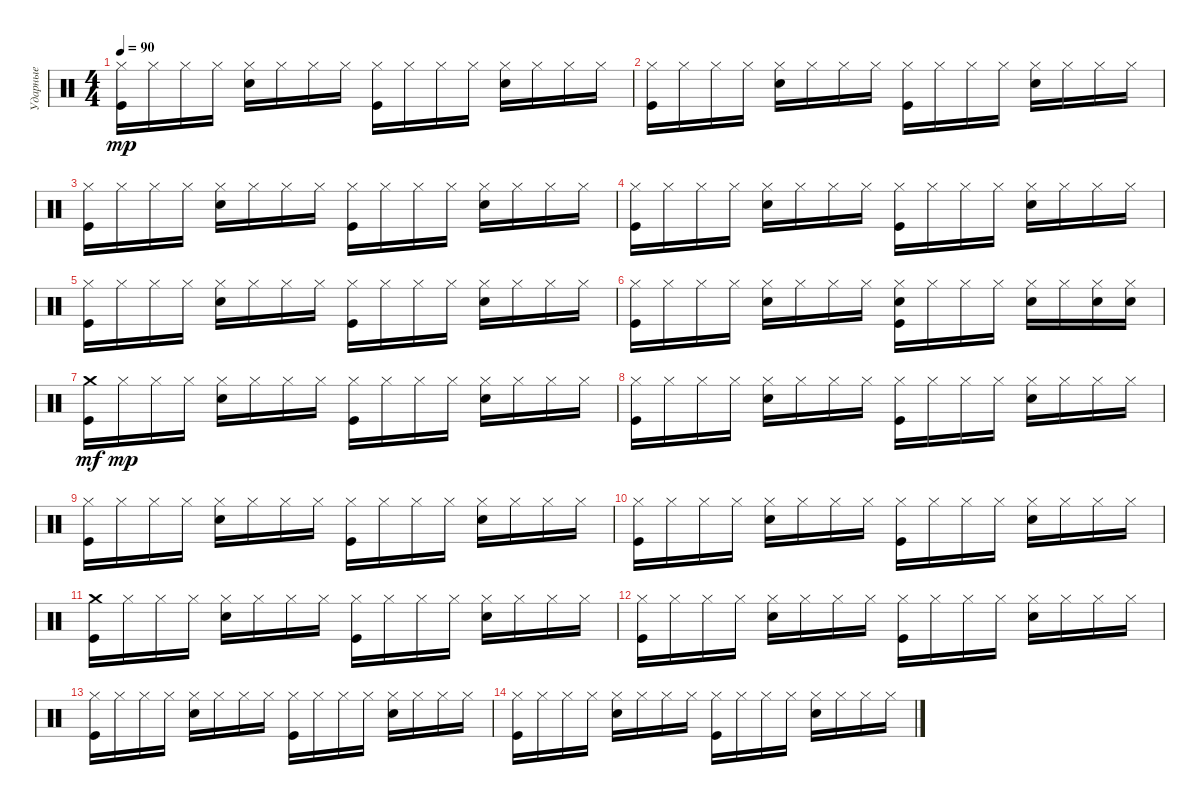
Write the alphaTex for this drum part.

\track ("Ударные" "Ударные") {instrument percussion}
\staff {score}
\articulation defaults
\ts (4 4)
\tempo 90
\clef neutral
\ks c
("Hi-Hat (closed)" "Kick (hit)").16{dy mp} "Hi-Hat (closed)".16 "Hi-Hat (closed)".16 "Hi-Hat (closed)".16 ("Hi-Hat (closed)" "Snare (hit) 2").16 "Hi-Hat (closed)".16 "Hi-Hat (closed)".16 "Hi-Hat (closed)".16 ("Hi-Hat (closed)" "Kick (hit)").16 "Hi-Hat (closed)".16 "Hi-Hat (closed)".16 "Hi-Hat (closed)".16 ("Hi-Hat (closed)" "Snare (hit) 2").16 "Hi-Hat (closed)".16 "Hi-Hat (closed)".16 "Hi-Hat (closed)".16 |
("Hi-Hat (closed)" "Kick (hit)").16 "Hi-Hat (closed)".16 "Hi-Hat (closed)".16 "Hi-Hat (closed)".16 ("Hi-Hat (closed)" "Snare (hit) 2").16 "Hi-Hat (closed)".16 "Hi-Hat (closed)".16 "Hi-Hat (closed)".16 ("Hi-Hat (closed)" "Kick (hit)").16 "Hi-Hat (closed)".16 "Hi-Hat (closed)".16 "Hi-Hat (closed)".16 ("Hi-Hat (closed)" "Snare (hit) 2").16 "Hi-Hat (closed)".16 "Hi-Hat (closed)".16 "Hi-Hat (closed)".16 |
("Hi-Hat (closed)" "Kick (hit)").16 "Hi-Hat (closed)".16 "Hi-Hat (closed)".16 "Hi-Hat (closed)".16 ("Hi-Hat (closed)" "Snare (hit) 2").16 "Hi-Hat (closed)".16 "Hi-Hat (closed)".16 "Hi-Hat (closed)".16 ("Hi-Hat (closed)" "Kick (hit)").16 "Hi-Hat (closed)".16 "Hi-Hat (closed)".16 "Hi-Hat (closed)".16 ("Hi-Hat (closed)" "Snare (hit) 2").16 "Hi-Hat (closed)".16 "Hi-Hat (closed)".16 "Hi-Hat (closed)".16 |
("Hi-Hat (closed)" "Kick (hit)").16 "Hi-Hat (closed)".16 "Hi-Hat (closed)".16 "Hi-Hat (closed)".16 ("Hi-Hat (closed)" "Snare (hit) 2").16 "Hi-Hat (closed)".16 "Hi-Hat (closed)".16 "Hi-Hat (closed)".16 ("Hi-Hat (closed)" "Kick (hit)").16 "Hi-Hat (closed)".16 "Hi-Hat (closed)".16 "Hi-Hat (closed)".16 ("Hi-Hat (closed)" "Snare (hit) 2").16 "Hi-Hat (closed)".16 "Hi-Hat (closed)".16 "Hi-Hat (closed)".16 |
("Hi-Hat (closed)" "Kick (hit)").16 "Hi-Hat (closed)".16 "Hi-Hat (closed)".16 "Hi-Hat (closed)".16 ("Hi-Hat (closed)" "Snare (hit) 2").16 "Hi-Hat (closed)".16 "Hi-Hat (closed)".16 "Hi-Hat (closed)".16 ("Hi-Hat (closed)" "Kick (hit)").16 "Hi-Hat (closed)".16 "Hi-Hat (closed)".16 "Hi-Hat (closed)".16 ("Hi-Hat (closed)" "Snare (hit) 2").16 "Hi-Hat (closed)".16 "Hi-Hat (closed)".16 "Hi-Hat (closed)".16 |
("Hi-Hat (closed)" "Kick (hit)").16 "Hi-Hat (closed)".16 "Hi-Hat (closed)".16 "Hi-Hat (closed)".16 ("Hi-Hat (closed)" "Snare (hit) 2").16 "Hi-Hat (closed)".16 "Hi-Hat (closed)".16 "Hi-Hat (closed)".16 ("Hi-Hat (closed)" "Kick (hit)" "Snare (hit) 2").16 "Hi-Hat (closed)".16 "Hi-Hat (closed)".16 "Hi-Hat (closed)".16 ("Hi-Hat (closed)" "Snare (hit) 2").16 "Hi-Hat (closed)".16 ("Hi-Hat (closed)" "Snare (hit) 2").16 ("Hi-Hat (closed)" "Snare (hit) 2").16 |
("Crash medium (hit)" "Kick (hit)").16{dy mf} "Hi-Hat (closed)".16{dy mp} "Hi-Hat (closed)".16 "Hi-Hat (closed)".16 ("Hi-Hat (closed)" "Snare (hit) 2").16 "Hi-Hat (closed)".16 "Hi-Hat (closed)".16 "Hi-Hat (closed)".16 ("Hi-Hat (closed)" "Kick (hit)").16 "Hi-Hat (closed)".16 "Hi-Hat (closed)".16 "Hi-Hat (closed)".16 ("Hi-Hat (closed)" "Snare (hit) 2").16 "Hi-Hat (closed)".16 "Hi-Hat (closed)".16 "Hi-Hat (closed)".16 |
("Hi-Hat (closed)" "Kick (hit)").16 "Hi-Hat (closed)".16 "Hi-Hat (closed)".16 "Hi-Hat (closed)".16 ("Hi-Hat (closed)" "Snare (hit) 2").16 "Hi-Hat (closed)".16 "Hi-Hat (closed)".16 "Hi-Hat (closed)".16 ("Hi-Hat (closed)" "Kick (hit)").16 "Hi-Hat (closed)".16 "Hi-Hat (closed)".16 "Hi-Hat (closed)".16 ("Hi-Hat (closed)" "Snare (hit) 2").16 "Hi-Hat (closed)".16 "Hi-Hat (closed)".16 "Hi-Hat (closed)".16 |
("Hi-Hat (closed)" "Kick (hit)").16 "Hi-Hat (closed)".16 "Hi-Hat (closed)".16 "Hi-Hat (closed)".16 ("Hi-Hat (closed)" "Snare (hit) 2").16 "Hi-Hat (closed)".16 "Hi-Hat (closed)".16 "Hi-Hat (closed)".16 ("Hi-Hat (closed)" "Kick (hit)").16 "Hi-Hat (closed)".16 "Hi-Hat (closed)".16 "Hi-Hat (closed)".16 ("Hi-Hat (closed)" "Snare (hit) 2").16 "Hi-Hat (closed)".16 "Hi-Hat (closed)".16 "Hi-Hat (closed)".16 |
("Hi-Hat (closed)" "Kick (hit)").16 "Hi-Hat (closed)".16 "Hi-Hat (closed)".16 "Hi-Hat (closed)".16 ("Hi-Hat (closed)" "Snare (hit) 2").16 "Hi-Hat (closed)".16 "Hi-Hat (closed)".16 "Hi-Hat (closed)".16 ("Hi-Hat (closed)" "Kick (hit)").16 "Hi-Hat (closed)".16 "Hi-Hat (closed)".16 "Hi-Hat (closed)".16 ("Hi-Hat (closed)" "Snare (hit) 2").16 "Hi-Hat (closed)".16 "Hi-Hat (closed)".16 "Hi-Hat (closed)".16 |
("Crash medium (hit)" "Kick (hit)").16 "Hi-Hat (closed)".16 "Hi-Hat (closed)".16 "Hi-Hat (closed)".16 ("Hi-Hat (closed)" "Snare (hit) 2").16 "Hi-Hat (closed)".16 "Hi-Hat (closed)".16 "Hi-Hat (closed)".16 ("Hi-Hat (closed)" "Kick (hit)").16 "Hi-Hat (closed)".16 "Hi-Hat (closed)".16 "Hi-Hat (closed)".16 ("Hi-Hat (closed)" "Snare (hit) 2").16 "Hi-Hat (closed)".16 "Hi-Hat (closed)".16 "Hi-Hat (closed)".16 |
("Hi-Hat (closed)" "Kick (hit)").16 "Hi-Hat (closed)".16 "Hi-Hat (closed)".16 "Hi-Hat (closed)".16 ("Hi-Hat (closed)" "Snare (hit) 2").16 "Hi-Hat (closed)".16 "Hi-Hat (closed)".16 "Hi-Hat (closed)".16 ("Hi-Hat (closed)" "Kick (hit)").16 "Hi-Hat (closed)".16 "Hi-Hat (closed)".16 "Hi-Hat (closed)".16 ("Hi-Hat (closed)" "Snare (hit) 2").16 "Hi-Hat (closed)".16 "Hi-Hat (closed)".16 "Hi-Hat (closed)".16 |
("Hi-Hat (closed)" "Kick (hit)").16 "Hi-Hat (closed)".16 "Hi-Hat (closed)".16 "Hi-Hat (closed)".16 ("Hi-Hat (closed)" "Snare (hit) 2").16 "Hi-Hat (closed)".16 "Hi-Hat (closed)".16 "Hi-Hat (closed)".16 ("Hi-Hat (closed)" "Kick (hit)").16 "Hi-Hat (closed)".16 "Hi-Hat (closed)".16 "Hi-Hat (closed)".16 ("Hi-Hat (closed)" "Snare (hit) 2").16 "Hi-Hat (closed)".16 "Hi-Hat (closed)".16 "Hi-Hat (closed)".16 |
("Hi-Hat (closed)" "Kick (hit)").16 "Hi-Hat (closed)".16 "Hi-Hat (closed)".16 "Hi-Hat (closed)".16 ("Hi-Hat (closed)" "Snare (hit) 2").16 "Hi-Hat (closed)".16 "Hi-Hat (closed)".16 "Hi-Hat (closed)".16 ("Hi-Hat (closed)" "Kick (hit)").16 "Hi-Hat (closed)".16 "Hi-Hat (closed)".16 "Hi-Hat (closed)".16 ("Hi-Hat (closed)" "Snare (hit) 2").16 "Hi-Hat (closed)".16 "Hi-Hat (closed)".16 "Hi-Hat (closed)".16
